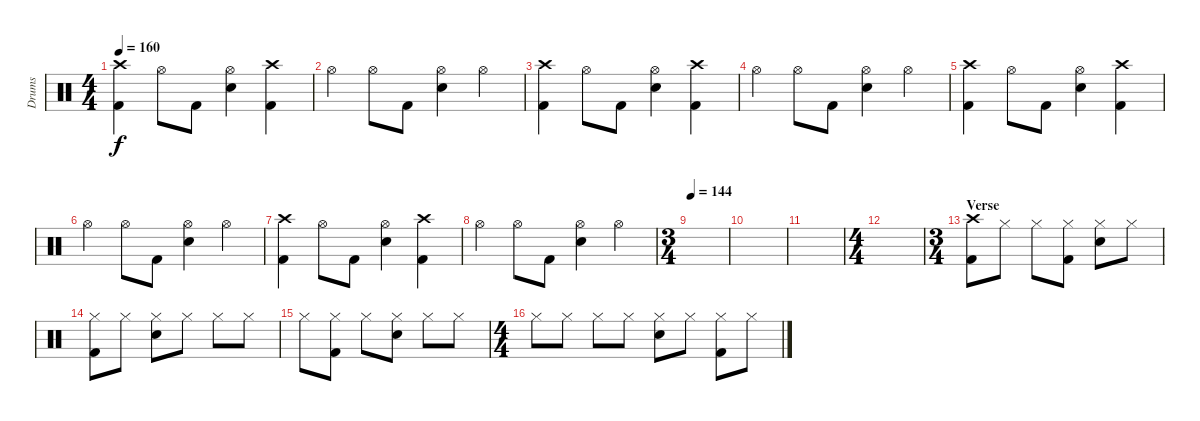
\track ("Drums" "Drums") {instrument percussion}
\staff {score}
\articulation defaults
\ts (4 4)
\section ("" "")
\tempo 160
\clef neutral
\ks c
("Crash high (hit)" "Kick (hit) 2").4{dy f} "Hi-Hat (open)".8 "Kick (hit) 2".8 ("Hi-Hat (open)" "Electric Snare (hit)").4 ("Crash high (hit)" "Kick (hit) 2").4 |
"Hi-Hat (open)".4 "Hi-Hat (open)".8 "Kick (hit) 2".8 ("Hi-Hat (open)" "Electric Snare (hit)").4 "Hi-Hat (open)".4 |
("Crash high (hit)" "Kick (hit) 2").4 "Hi-Hat (open)".8 "Kick (hit) 2".8 ("Hi-Hat (open)" "Electric Snare (hit)").4 ("Crash high (hit)" "Kick (hit) 2").4 |
"Hi-Hat (open)".4 "Hi-Hat (open)".8 "Kick (hit) 2".8 ("Hi-Hat (open)" "Electric Snare (hit)").4 "Hi-Hat (open)".4 |
("Crash high (hit)" "Kick (hit) 2").4 "Hi-Hat (open)".8 "Kick (hit) 2".8 ("Hi-Hat (open)" "Electric Snare (hit)").4 ("Crash high (hit)" "Kick (hit) 2").4 |
"Hi-Hat (open)".4 "Hi-Hat (open)".8 "Kick (hit) 2".8 ("Hi-Hat (open)" "Electric Snare (hit)").4 "Hi-Hat (open)".4 |
("Crash high (hit)" "Kick (hit) 2").4 "Hi-Hat (open)".8 "Kick (hit) 2".8 ("Hi-Hat (open)" "Electric Snare (hit)").4 ("Crash high (hit)" "Kick (hit) 2").4 |
"Hi-Hat (open)".4 "Hi-Hat (open)".8 "Kick (hit) 2".8 ("Hi-Hat (open)" "Electric Snare (hit)").4 "Hi-Hat (open)".4 |
\ts (3 4)
\section ("" "")
\tempo 144
|
|
|
\ts (4 4)
|
\ts (3 4)
\section ("" "Verse")
("Crash high (hit)" "Kick (hit) 2").8 "Hi-Hat (closed)".8 "Hi-Hat (closed)".8 ("Hi-Hat (closed)" "Kick (hit) 2").8 ("Hi-Hat (closed)" "Electric Snare (hit)").8 "Hi-Hat (closed)".8 |
("Hi-Hat (closed)" "Kick (hit) 2").8 "Hi-Hat (closed)".8 ("Hi-Hat (closed)" "Electric Snare (hit)").8 "Hi-Hat (closed)".8 "Hi-Hat (closed)".8 "Hi-Hat (closed)".8 |
"Hi-Hat (closed)".8 ("Hi-Hat (closed)" "Kick (hit) 2").8 "Hi-Hat (closed)".8 ("Hi-Hat (closed)" "Electric Snare (hit)").8 "Hi-Hat (closed)".8 "Hi-Hat (closed)".8 |
\ts (4 4)
"Hi-Hat (closed)".8 "Hi-Hat (closed)".8 "Hi-Hat (closed)".8 "Hi-Hat (closed)".8 ("Hi-Hat (closed)" "Electric Snare (hit)").8 "Hi-Hat (closed)".8 ("Hi-Hat (closed)" "Kick (hit) 2").8 "Hi-Hat (closed)".8
